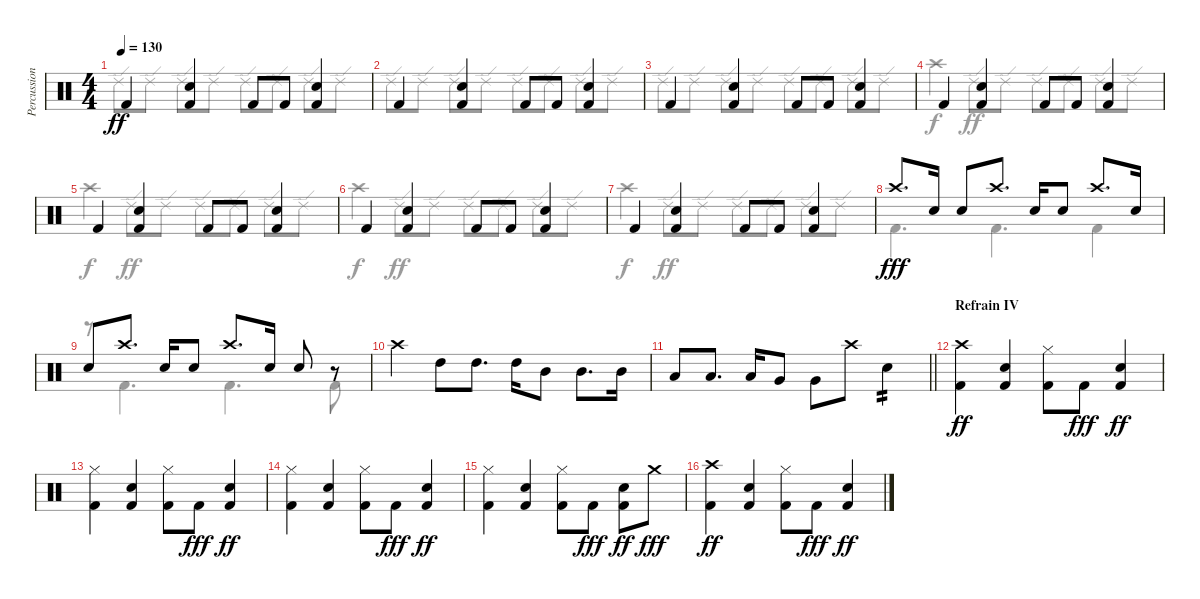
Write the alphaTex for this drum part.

\track ("Percussions" "Percussion") {instrument percussion}
\staff {score}
\articulation defaults
\voice
\ts (4 4)
\tempo 130
\clef neutral
\ks c "Kick (hit) 2".4{dy ff}
("Kick (hit) 2" "Electric Snare (hit)").4 "Kick (hit) 2".8 "Kick (hit) 2".8 ("Kick (hit) 2" "Electric Snare (hit)").4 |
"Kick (hit) 2".4 ("Kick (hit) 2" "Electric Snare (hit)").4 "Kick (hit) 2".8 "Kick (hit) 2".8 ("Kick (hit) 2" "Electric Snare (hit)").4 |
"Kick (hit) 2".4 ("Kick (hit) 2" "Electric Snare (hit)").4 "Kick (hit) 2".8 "Kick (hit) 2".8 ("Kick (hit) 2" "Electric Snare (hit)").4 |
"Kick (hit) 2".4 ("Kick (hit) 2" "Electric Snare (hit)").4 "Kick (hit) 2".8 "Kick (hit) 2".8 ("Kick (hit) 2" "Electric Snare (hit)").4 |
"Kick (hit) 2".4 ("Kick (hit) 2" "Electric Snare (hit)").4 "Kick (hit) 2".8 "Kick (hit) 2".8 ("Kick (hit) 2" "Electric Snare (hit)").4 |
"Kick (hit) 2".4 ("Kick (hit) 2" "Electric Snare (hit)").4 "Kick (hit) 2".8 "Kick (hit) 2".8 ("Kick (hit) 2" "Electric Snare (hit)").4 |
"Kick (hit) 2".4 ("Kick (hit) 2" "Electric Snare (hit)").4 "Kick (hit) 2".8 "Kick (hit) 2".8 ("Kick (hit) 2" "Electric Snare (hit)").4 |
"Crash high (hit)".8{d dy fff} "Electric Snare (hit)".16 "Electric Snare (hit)".8 "Crash high (hit)".8{d} "Electric Snare (hit)".16 "Electric Snare (hit)".8 "Crash high (hit)".8{d} "Electric Snare (hit)".16 |
"Electric Snare (hit)".8 "Crash high (hit)".8{d} "Electric Snare (hit)".16 "Electric Snare (hit)".8 "Crash high (hit)".8{d} "Electric Snare (hit)".16 "Electric Snare (hit)".8 r.8 |
"Crash high (hit)".4 "High Tom (hit)".8 "High Tom (hit)".8{d} "High Tom (hit)".16 "Mid Tom (hit)".8 "Mid Tom (hit)".8{d} "Mid Tom (hit)".16 |
\barLineRight lightlight "Low Tom (hit)".8 "Low Tom (hit)".8{d} "Low Tom (hit)".16 "Very Low Tom (hit)".8 "Very Low Tom (hit)".8 "Crash high (hit)".8 "Electric Snare (hit)".4{tp 2}
|
\section ("" "Refrain IV")
("Kick (hit) 2" "Crash high (hit)").4{dy ff} ("Kick (hit) 2" "Electric Snare (hit)").4 ("Kick (hit) 2" "Hi-Hat (closed)").8 "Kick (hit) 2".8{dy fff} ("Kick (hit) 2" "Electric Snare (hit)").4{dy ff} |
("Kick (hit) 2" "Hi-Hat (closed)").4 ("Kick (hit) 2" "Electric Snare (hit)").4 ("Kick (hit) 2" "Hi-Hat (closed)").8 "Kick (hit) 2".8{dy fff} ("Kick (hit) 2" "Electric Snare (hit)").4{dy ff} |
("Kick (hit) 2" "Hi-Hat (closed)").4 ("Kick (hit) 2" "Electric Snare (hit)").4 ("Kick (hit) 2" "Hi-Hat (closed)").8 "Kick (hit) 2".8{dy fff} ("Kick (hit) 2" "Electric Snare (hit)").4{dy ff} |
("Kick (hit) 2" "Hi-Hat (closed)").4 ("Kick (hit) 2" "Electric Snare (hit)").4 ("Kick (hit) 2" "Hi-Hat (closed)").8 "Kick (hit) 2".8{dy fff} ("Kick (hit) 2" "Electric Snare (hit)").8{dy ff} "Crash medium (hit)".8{dy fff} |
("Kick (hit) 2" "Crash high (hit)").4{dy ff} ("Kick (hit) 2" "Electric Snare (hit)").4 ("Kick (hit) 2" "Hi-Hat (closed)").8 "Kick (hit) 2".8{dy fff} ("Kick (hit) 2" "Electric Snare (hit)").4{dy ff}
\voice
\clef neutral
\ottava regular
\simile none
\ks c "Ride (edge) 2".8{dy ff} "Ride (edge) 2".8 "Ride (edge) 2".8 "Ride (edge) 2".8 "Ride (edge) 2".8 "Ride (edge) 2".8 "Ride (edge) 2".8 "Ride (edge) 2".8
|
"Ride (edge) 2".8 "Ride (edge) 2".8 "Ride (edge) 2".8 "Ride (edge) 2".8 "Ride (edge) 2".8 "Ride (edge) 2".8 "Ride (edge) 2".8 "Ride (edge) 2".8 |
"Ride (edge) 2".8 "Ride (edge) 2".8 "Ride (edge) 2".8 "Ride (edge) 2".8 "Ride (edge) 2".8 "Ride (edge) 2".8 "Ride (edge) 2".8 "Ride (edge) 2".8 |
"Crash high (hit)".4{dy f} "Ride (edge) 2".8{dy ff} "Ride (edge) 2".8 "Ride (edge) 2".8 "Ride (edge) 2".8 "Ride (edge) 2".8 "Ride (edge) 2".8 |
"Crash high (hit)".4{dy f} "Ride (edge) 2".8{dy ff} "Ride (edge) 2".8 "Ride (edge) 2".8 "Ride (edge) 2".8 "Ride (edge) 2".8 "Ride (edge) 2".8 |
"Crash high (hit)".4{dy f} "Ride (edge) 2".8{dy ff} "Ride (edge) 2".8 "Ride (edge) 2".8 "Ride (edge) 2".8 "Ride (edge) 2".8 "Ride (edge) 2".8 |
"Crash high (hit)".4{dy f} "Ride (edge) 2".8{dy ff} "Ride (edge) 2".8 "Ride (edge) 2".8 "Ride (edge) 2".8 "Ride (edge) 2".8 "Ride (edge) 2".8 |
"Kick (hit) 2".4{d dy fff} "Kick (hit) 2".4{d} "Kick (hit) 2".4 |
r.8 "Kick (hit) 2".4{d} "Kick (hit) 2".4{d} "Kick (hit) 2".8 |
|
\barLineRight lightlight
|
|
|
|
|
